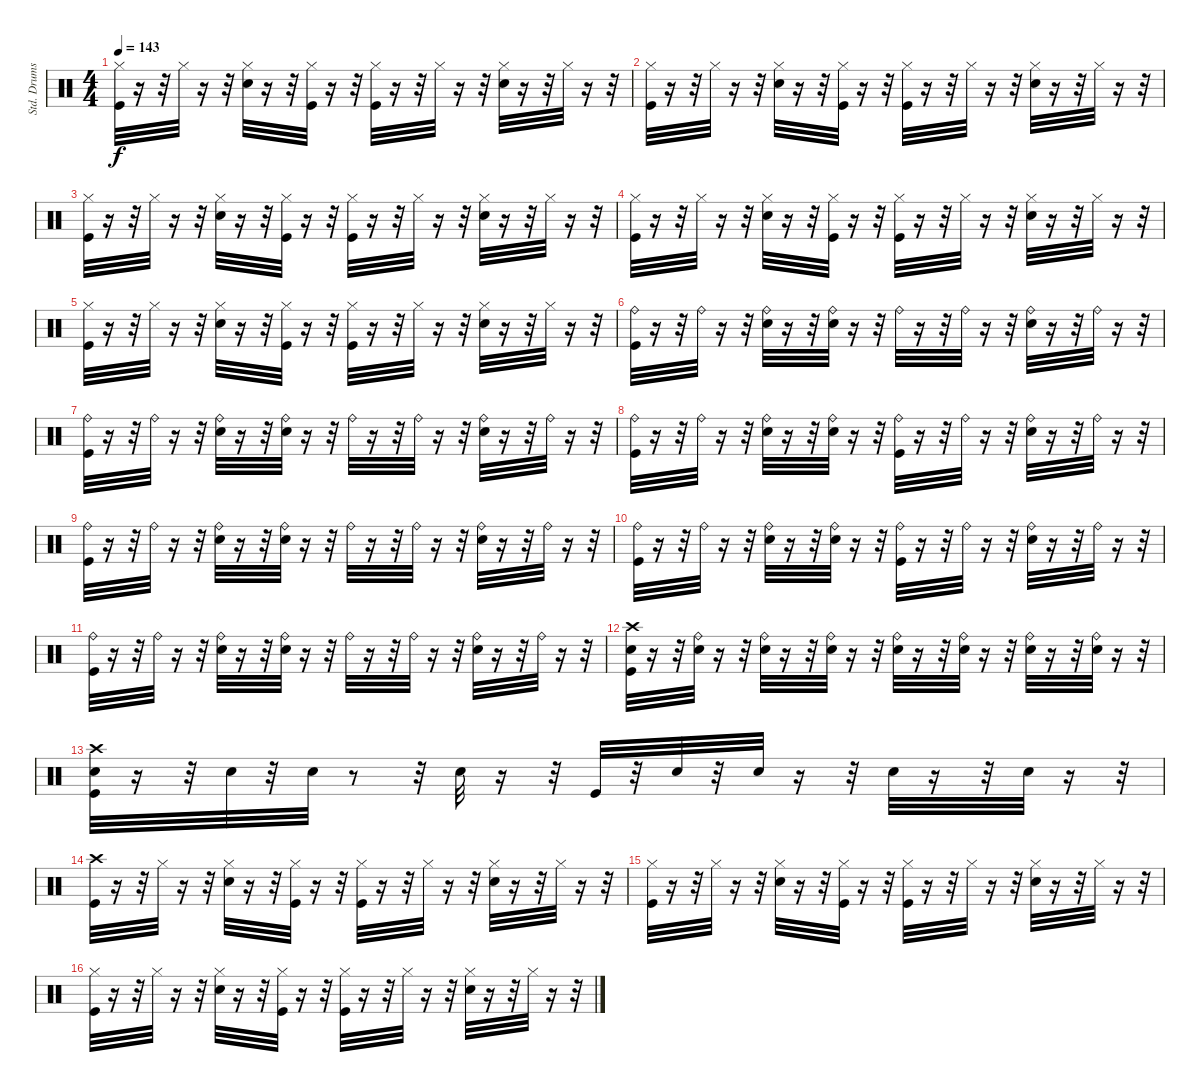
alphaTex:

\track ("Std. Drums " "Std. Drums") {instrument percussion}
\staff {score}
\articulation defaults
\ts (4 4)
\tempo 143
\clef neutral
\ks c
("Hi-Hat (closed)" "Kick (hit)").32{dy f} r.16 r.32 "Hi-Hat (closed)".32 r.16 r.32 ("Hi-Hat (closed)" "Snare (hit) 2").32 r.16 r.32 ("Hi-Hat (closed)" "Kick (hit)").32 r.16 r.32 ("Hi-Hat (closed)" "Kick (hit)").32 r.16 r.32 "Hi-Hat (closed)".32 r.16 r.32 ("Hi-Hat (closed)" "Snare (hit) 2").32 r.16 r.32 "Hi-Hat (closed)".32 r.16 r.32 |
("Hi-Hat (closed)" "Kick (hit)").32 r.16 r.32 "Hi-Hat (closed)".32 r.16 r.32 ("Hi-Hat (closed)" "Snare (hit) 2").32 r.16 r.32 ("Hi-Hat (closed)" "Kick (hit)").32 r.16 r.32 ("Hi-Hat (closed)" "Kick (hit)").32 r.16 r.32 "Hi-Hat (closed)".32 r.16 r.32 ("Hi-Hat (closed)" "Snare (hit) 2").32 r.16 r.32 "Hi-Hat (closed)".32 r.16 r.32 |
("Hi-Hat (closed)" "Kick (hit)").32 r.16 r.32 "Hi-Hat (closed)".32 r.16 r.32 ("Hi-Hat (closed)" "Snare (hit) 2").32 r.16 r.32 ("Hi-Hat (closed)" "Kick (hit)").32 r.16 r.32 ("Hi-Hat (closed)" "Kick (hit)").32 r.16 r.32 "Hi-Hat (closed)".32 r.16 r.32 ("Hi-Hat (closed)" "Snare (hit) 2").32 r.16 r.32 "Hi-Hat (closed)".32 r.16 r.32 |
("Hi-Hat (closed)" "Kick (hit)").32 r.16 r.32 "Hi-Hat (closed)".32 r.16 r.32 ("Hi-Hat (closed)" "Snare (hit) 2").32 r.16 r.32 ("Hi-Hat (closed)" "Kick (hit)").32 r.16 r.32 ("Hi-Hat (closed)" "Kick (hit)").32 r.16 r.32 "Hi-Hat (closed)".32 r.16 r.32 ("Hi-Hat (closed)" "Snare (hit) 2").32 r.16 r.32 "Hi-Hat (closed)".32 r.16 r.32 |
("Hi-Hat (closed)" "Kick (hit)").32 r.16 r.32 "Hi-Hat (closed)".32 r.16 r.32 ("Hi-Hat (closed)" "Snare (hit) 2").32 r.16 r.32 ("Hi-Hat (closed)" "Kick (hit)").32 r.16 r.32 ("Hi-Hat (closed)" "Kick (hit)").32 r.16 r.32 "Hi-Hat (closed)".32 r.16 r.32 ("Hi-Hat (closed)" "Snare (hit) 2").32 r.16 r.32 "Hi-Hat (closed)".32 r.16 r.32 |
("Kick (hit)" "Ride (bell)").32 r.16 r.32 "Ride (bell)".32 r.16 r.32 ("Ride (bell)" "Snare (hit) 2").32 r.16 r.32 ("Ride (bell)" "Snare (hit) 2").32 r.16 r.32 "Ride (bell)".32 r.16 r.32 "Ride (bell)".32 r.16 r.32 ("Ride (bell)" "Snare (hit) 2").32 r.16 r.32 "Ride (bell)".32 r.16 r.32 |
("Ride (bell)" "Kick (hit)").32 r.16 r.32 "Ride (bell)".32 r.16 r.32 ("Snare (hit) 2" "Ride (bell)").32 r.16 r.32 ("Snare (hit) 2" "Ride (bell)").32 r.16 r.32 "Ride (bell)".32 r.16 r.32 "Ride (bell)".32 r.16 r.32 ("Ride (bell)" "Snare (hit) 2").32 r.16 r.32 "Ride (bell)".32 r.16 r.32 |
("Kick (hit)" "Ride (bell)").32 r.16 r.32 "Ride (bell)".32 r.16 r.32 ("Ride (bell)" "Snare (hit) 2").32 r.16 r.32 ("Snare (hit) 2" "Ride (bell)").32 r.16 r.32 ("Kick (hit)" "Ride (bell)").32 r.16 r.32 "Ride (bell)".32 r.16 r.32 ("Snare (hit) 2" "Ride (bell)").32 r.16 r.32 "Ride (bell)".32 r.16 r.32 |
("Ride (bell)" "Kick (hit)").32 r.16 r.32 "Ride (bell)".32 r.16 r.32 ("Ride (bell)" "Snare (hit) 2").32 r.16 r.32 ("Ride (bell)" "Snare (hit) 2").32 r.16 r.32 "Ride (bell)".32 r.16 r.32 "Ride (bell)".32 r.16 r.32 ("Ride (bell)" "Snare (hit) 2").32 r.16 r.32 "Ride (bell)".32 r.16 r.32 |
("Ride (bell)" "Kick (hit)").32 r.16 r.32 "Ride (bell)".32 r.16 r.32 ("Snare (hit) 2" "Ride (bell)").32 r.16 r.32 ("Snare (hit) 2" "Ride (bell)").32 r.16 r.32 ("Ride (bell)" "Kick (hit)").32 r.16 r.32 "Ride (bell)".32 r.16 r.32 ("Snare (hit) 2" "Ride (bell)").32 r.16 r.32 "Ride (bell)".32 r.16 r.32 |
("Kick (hit)" "Ride (bell)").32 r.16 r.32 "Ride (bell)".32 r.16 r.32 ("Ride (bell)" "Snare (hit) 2").32 r.16 r.32 ("Snare (hit) 2" "Ride (bell)").32 r.16 r.32 "Ride (bell)".32 r.16 r.32 "Ride (bell)".32 r.16 r.32 ("Snare (hit) 2" "Ride (bell)").32 r.16 r.32 "Ride (bell)".32 r.16 r.32 |
("Snare (hit) 2" "Kick (hit)" "Crash high (hit)").32 r.16 r.32 ("Ride (bell)" "Snare (hit) 2").32 r.16 r.32 ("Snare (hit) 2" "Ride (bell)").32 r.16 r.32 ("Snare (hit) 2" "Ride (bell)").32 r.16 r.32 ("Ride (bell)" "Snare (hit) 2").32 r.16 r.32 ("Snare (hit) 2" "Ride (bell)").32 r.16 r.32 ("Snare (hit) 2" "Ride (bell)").32 r.16 r.32 ("Snare (hit) 2" "Ride (bell)").32 r.16 r.32 |
("Snare (hit) 2" "Crash high (hit)" "Kick (hit)").32 r.16 r.32 "Snare (hit) 2".32 r.32 "Snare (hit) 2".32 r.8 r.32 "Snare (hit) 2".32 r.16 r.32 "Kick (hit)".32 r.32 "Snare (hit) 2".32 r.32 "Snare (hit) 2".32 r.16 r.32 "Snare (hit) 2".32 r.16 r.32 "Snare (hit) 2".32 r.16 r.32 |
("Kick (hit)" "Crash high (hit)").32 r.16 r.32 "Hi-Hat (closed)".32 r.16 r.32 ("Hi-Hat (closed)" "Snare (hit) 2").32 r.16 r.32 ("Hi-Hat (closed)" "Kick (hit)").32 r.16 r.32 ("Hi-Hat (closed)" "Kick (hit)").32 r.16 r.32 "Hi-Hat (closed)".32 r.16 r.32 ("Hi-Hat (closed)" "Snare (hit) 2").32 r.16 r.32 "Hi-Hat (closed)".32 r.16 r.32 |
("Hi-Hat (closed)" "Kick (hit)").32 r.16 r.32 "Hi-Hat (closed)".32 r.16 r.32 ("Hi-Hat (closed)" "Snare (hit) 2").32 r.16 r.32 ("Hi-Hat (closed)" "Kick (hit)").32 r.16 r.32 ("Hi-Hat (closed)" "Kick (hit)").32 r.16 r.32 "Hi-Hat (closed)".32 r.16 r.32 ("Hi-Hat (closed)" "Snare (hit) 2").32 r.16 r.32 "Hi-Hat (closed)".32 r.16 r.32 |
("Hi-Hat (closed)" "Kick (hit)").32 r.16 r.32 "Hi-Hat (closed)".32 r.16 r.32 ("Hi-Hat (closed)" "Snare (hit) 2").32 r.16 r.32 ("Hi-Hat (closed)" "Kick (hit)").32 r.16 r.32 ("Hi-Hat (closed)" "Kick (hit)").32 r.16 r.32 "Hi-Hat (closed)".32 r.16 r.32 ("Hi-Hat (closed)" "Snare (hit) 2").32 r.16 r.32 "Hi-Hat (closed)".32 r.16 r.32
